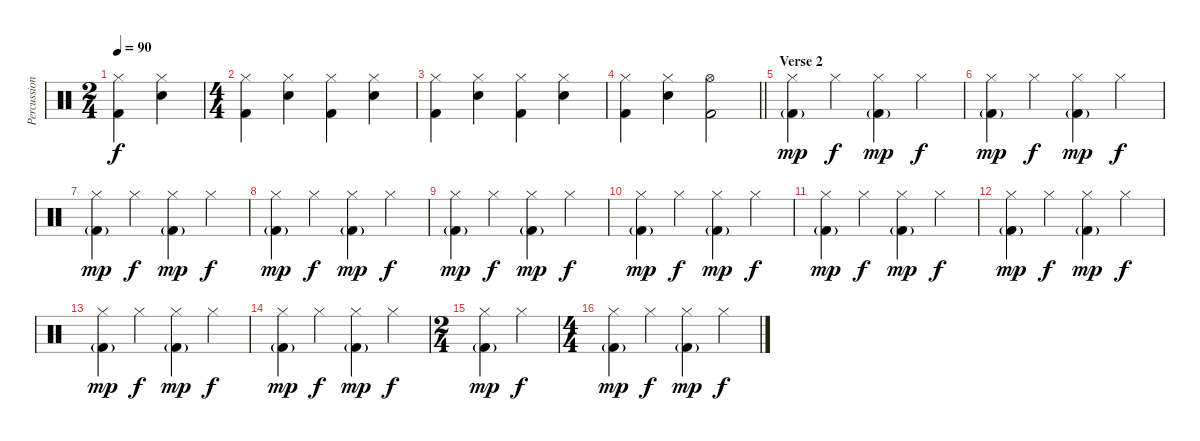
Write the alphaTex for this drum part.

\track ("Percussion" "Percussion") {instrument percussion}
\staff {score}
\articulation defaults
\ts (2 4)
\tempo 90
\clef neutral
\ks c
("Hi-Hat (closed)" "Kick (hit) 2").4{dy f} ("Hi-Hat (closed)" "Snare (hit) 2").4 |
\ts (4 4)
("Hi-Hat (closed)" "Kick (hit) 2").4 ("Hi-Hat (closed)" "Snare (hit) 2").4 ("Hi-Hat (closed)" "Kick (hit) 2").4 ("Hi-Hat (closed)" "Snare (hit) 2").4 |
("Hi-Hat (closed)" "Kick (hit) 2").4 ("Hi-Hat (closed)" "Snare (hit) 2").4 ("Hi-Hat (closed)" "Kick (hit) 2").4 ("Hi-Hat (closed)" "Snare (hit) 2").4 |
\barLineRight lightlight
("Hi-Hat (closed)" "Kick (hit) 2").4 ("Hi-Hat (closed)" "Snare (hit) 2").4 ("Hi-Hat (open)" "Kick (hit) 2").2 |
\section ("" "Verse 2")
("Hi-Hat (closed)" "Kick (hit) 2"{g}).4{dy mp} "Hi-Hat (closed)".4{dy f} ("Hi-Hat (closed)" "Kick (hit) 2"{g}).4{dy mp} "Hi-Hat (closed)".4{dy f} |
("Hi-Hat (closed)" "Kick (hit) 2"{g}).4{dy mp} "Hi-Hat (closed)".4{dy f} ("Hi-Hat (closed)" "Kick (hit) 2"{g}).4{dy mp} "Hi-Hat (closed)".4{dy f} |
("Hi-Hat (closed)" "Kick (hit) 2"{g}).4{dy mp} "Hi-Hat (closed)".4{dy f} ("Hi-Hat (closed)" "Kick (hit) 2"{g}).4{dy mp} "Hi-Hat (closed)".4{dy f} |
("Hi-Hat (closed)" "Kick (hit) 2"{g}).4{dy mp} "Hi-Hat (closed)".4{dy f} ("Hi-Hat (closed)" "Kick (hit) 2"{g}).4{dy mp} "Hi-Hat (closed)".4{dy f} |
("Hi-Hat (closed)" "Kick (hit) 2"{g}).4{dy mp} "Hi-Hat (closed)".4{dy f} ("Hi-Hat (closed)" "Kick (hit) 2"{g}).4{dy mp} "Hi-Hat (closed)".4{dy f} |
("Hi-Hat (closed)" "Kick (hit) 2"{g}).4{dy mp} "Hi-Hat (closed)".4{dy f} ("Hi-Hat (closed)" "Kick (hit) 2"{g}).4{dy mp} "Hi-Hat (closed)".4{dy f} |
("Hi-Hat (closed)" "Kick (hit) 2"{g}).4{dy mp} "Hi-Hat (closed)".4{dy f} ("Hi-Hat (closed)" "Kick (hit) 2"{g}).4{dy mp} "Hi-Hat (closed)".4{dy f} |
("Hi-Hat (closed)" "Kick (hit) 2"{g}).4{dy mp} "Hi-Hat (closed)".4{dy f} ("Hi-Hat (closed)" "Kick (hit) 2"{g}).4{dy mp} "Hi-Hat (closed)".4{dy f} |
("Hi-Hat (closed)" "Kick (hit) 2"{g}).4{dy mp} "Hi-Hat (closed)".4{dy f} ("Hi-Hat (closed)" "Kick (hit) 2"{g}).4{dy mp} "Hi-Hat (closed)".4{dy f} |
("Hi-Hat (closed)" "Kick (hit) 2"{g}).4{dy mp} "Hi-Hat (closed)".4{dy f} ("Hi-Hat (closed)" "Kick (hit) 2"{g}).4{dy mp} "Hi-Hat (closed)".4{dy f} |
\ts (2 4)
("Hi-Hat (closed)" "Kick (hit) 2"{g}).4{dy mp} "Hi-Hat (closed)".4{dy f} |
\ts (4 4)
("Hi-Hat (closed)" "Kick (hit) 2"{g}).4{dy mp} "Hi-Hat (closed)".4{dy f} ("Hi-Hat (closed)" "Kick (hit) 2"{g}).4{dy mp} "Hi-Hat (closed)".4{dy f}
